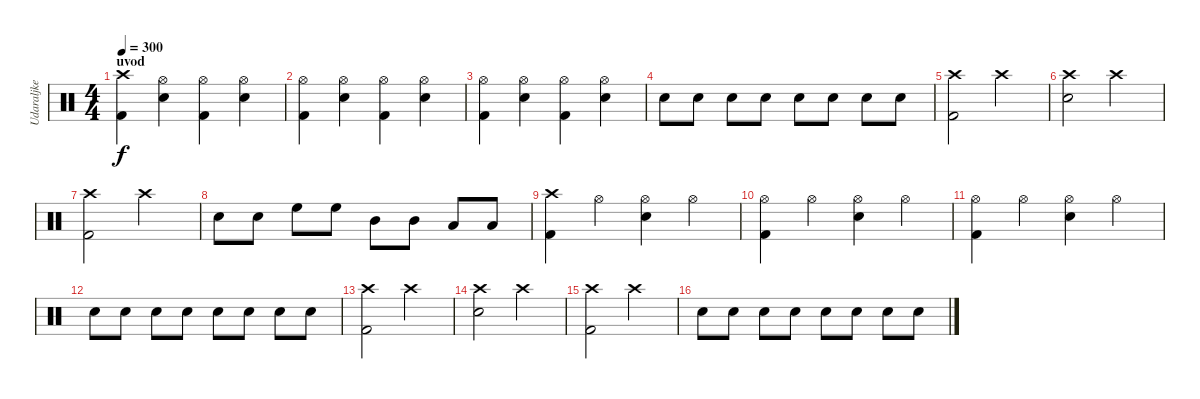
\track ("Udaraljke" "Udaraljke") {instrument percussion}
\staff {score}
\articulation defaults
\ts (4 4)
\section ("" "uvod")
\tempo 300
\clef neutral
\ks c
("Kick (hit) 2" "Crash high (hit)").4{dy f} ("Electric Snare (hit)" "Hi-Hat (open)").4 ("Kick (hit) 2" "Hi-Hat (open)").4 ("Electric Snare (hit)" "Hi-Hat (open)").4 |
("Kick (hit) 2" "Hi-Hat (open)").4 ("Electric Snare (hit)" "Hi-Hat (open)").4 ("Kick (hit) 2" "Hi-Hat (open)").4 ("Electric Snare (hit)" "Hi-Hat (open)").4 |
("Kick (hit) 2" "Hi-Hat (open)").4 ("Electric Snare (hit)" "Hi-Hat (open)").4 ("Kick (hit) 2" "Hi-Hat (open)").4 ("Electric Snare (hit)" "Hi-Hat (open)").4 |
"Electric Snare (hit)".8 "Electric Snare (hit)".8 "Electric Snare (hit)".8 "Electric Snare (hit)".8 "Electric Snare (hit)".8 "Electric Snare (hit)".8 "Electric Snare (hit)".8 "Electric Snare (hit)".8 |
("Crash high (hit)" "Kick (hit) 2").2 "Crash high (hit)".2 |
("Crash high (hit)" "Electric Snare (hit)").2 "Crash high (hit)".2 |
("Crash high (hit)" "Kick (hit) 2").2 "Crash high (hit)".2 |
"Electric Snare (hit)".8 "Electric Snare (hit)".8 "High Floor Tom (hit)".8 "High Floor Tom (hit)".8 "Mid Tom (hit)".8 "Mid Tom (hit)".8 "Low Tom (hit)".8 "Low Tom (hit)".8 |
("Kick (hit) 2" "Crash high (hit)").4 "Hi-Hat (open)".4 ("Electric Snare (hit)" "Hi-Hat (open)").4 "Hi-Hat (open)".4 |
("Kick (hit) 2" "Hi-Hat (open)").4 "Hi-Hat (open)".4 ("Electric Snare (hit)" "Hi-Hat (open)").4 "Hi-Hat (open)".4 |
("Kick (hit) 2" "Hi-Hat (open)").4 "Hi-Hat (open)".4 ("Electric Snare (hit)" "Hi-Hat (open)").4 "Hi-Hat (open)".4 |
"Electric Snare (hit)".8 "Electric Snare (hit)".8 "Electric Snare (hit)".8 "Electric Snare (hit)".8 "Electric Snare (hit)".8 "Electric Snare (hit)".8 "Electric Snare (hit)".8 "Electric Snare (hit)".8 |
("Crash high (hit)" "Kick (hit) 2").2 "Crash high (hit)".2 |
("Crash high (hit)" "Electric Snare (hit)").2 "Crash high (hit)".2 |
("Crash high (hit)" "Kick (hit) 2").2 "Crash high (hit)".2 |
"Electric Snare (hit)".8 "Electric Snare (hit)".8 "Electric Snare (hit)".8 "Electric Snare (hit)".8 "Electric Snare (hit)".8 "Electric Snare (hit)".8 "Electric Snare (hit)".8 "Electric Snare (hit)".8
